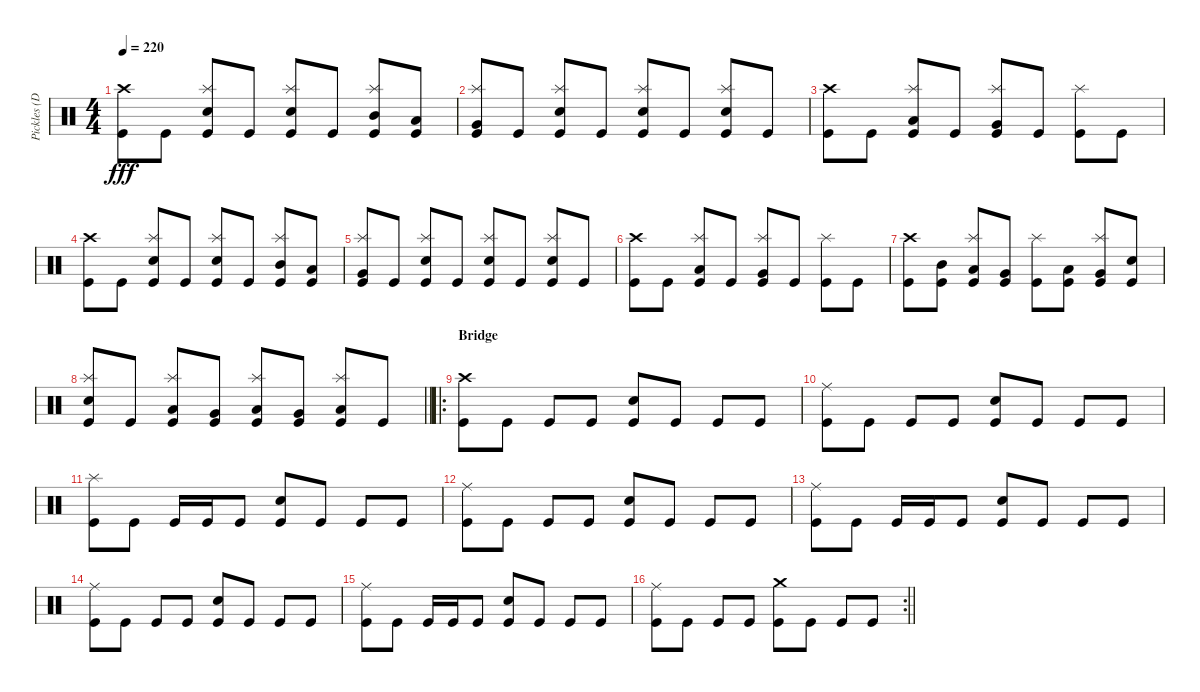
\track ("Pickles (Drums)" "Pickles (D") {instrument percussion}
\staff {score}
\articulation defaults
\ts (4 4)
\tempo 220
\clef neutral
\ks c
("Crash high (hit)" "Kick (hit)").8{dy fff} "Kick (hit)".8 ("Splash (hit)" "Electric Snare (hit)" "Kick (hit)").8 "Kick (hit)".8 ("Splash (hit)" "Electric Snare (hit)" "Kick (hit)").8 "Kick (hit)".8 ("Splash (hit)" "Mid Tom (hit)" "Kick (hit)").8 ("Low Tom (hit)" "Kick (hit)").8 |
("Splash (hit)" "Very Low Tom (hit)" "Kick (hit)").8 "Kick (hit)".8 ("Splash (hit)" "Electric Snare (hit)" "Kick (hit)").8 "Kick (hit)".8 ("Splash (hit)" "Electric Snare (hit)" "Kick (hit)").8 "Kick (hit)".8 ("Splash (hit)" "Electric Snare (hit)" "Kick (hit)").8 "Kick (hit)".8 |
("Crash high (hit)" "Kick (hit)").8 "Kick (hit)".8 ("Splash (hit)" "Low Tom (hit)" "Kick (hit)").8 "Kick (hit)".8 ("Splash (hit)" "Very Low Tom (hit)" "Kick (hit)").8 "Kick (hit)".8 ("Splash (hit)" "Kick (hit)").8 "Kick (hit)".8 |
("Crash high (hit)" "Kick (hit)").8 "Kick (hit)".8 ("Splash (hit)" "Electric Snare (hit)" "Kick (hit)").8 "Kick (hit)".8 ("Splash (hit)" "Electric Snare (hit)" "Kick (hit)").8 "Kick (hit)".8 ("Splash (hit)" "Mid Tom (hit)" "Kick (hit)").8 ("Low Tom (hit)" "Kick (hit)").8 |
("Splash (hit)" "Very Low Tom (hit)" "Kick (hit)").8 "Kick (hit)".8 ("Splash (hit)" "Electric Snare (hit)" "Kick (hit)").8 "Kick (hit)".8 ("Splash (hit)" "Electric Snare (hit)" "Kick (hit)").8 "Kick (hit)".8 ("Splash (hit)" "Electric Snare (hit)" "Kick (hit)").8 "Kick (hit)".8 |
("Crash high (hit)" "Kick (hit)").8 "Kick (hit)".8 ("Splash (hit)" "Low Tom (hit)" "Kick (hit)").8 "Kick (hit)".8 ("Splash (hit)" "Very Low Tom (hit)" "Kick (hit)").8 "Kick (hit)".8 ("Splash (hit)" "Kick (hit)").8 "Kick (hit)".8 |
("Crash high (hit)" "Kick (hit)").8 ("Mid Tom (hit)" "Kick (hit)").8 ("Splash (hit)" "Low Tom (hit)" "Kick (hit)").8 ("Very Low Tom (hit)" "Kick (hit)").8 ("Splash (hit)" "Kick (hit)").8 ("Low Tom (hit)" "Kick (hit)").8 ("Splash (hit)" "Very Low Tom (hit)" "Kick (hit)").8 ("Electric Snare (hit)" "Kick (hit)").8 |
\barLineRight lightlight
("Splash (hit)" "Electric Snare (hit)" "Kick (hit)").8 "Kick (hit)".8 ("Splash (hit)" "Low Tom (hit)" "Kick (hit)").8 ("Very Low Tom (hit)" "Kick (hit)").8 ("Splash (hit)" "Low Floor Tom (hit)" "Kick (hit)").8 ("Very Low Tom (hit)" "Kick (hit)").8 ("Splash (hit)" "Low Floor Tom (hit)" "Kick (hit)").8 "Kick (hit)".8 |
\ro
\section ("" "Bridge")
("Crash high (hit)" "Kick (hit)").8 "Kick (hit)".8 "Kick (hit)".8 "Kick (hit)".8 ("Electric Snare (hit)" "Kick (hit)").8 "Kick (hit)".8 "Kick (hit)".8 "Kick (hit)".8 |
("Ride (middle)" "Kick (hit)").8 "Kick (hit)".8 "Kick (hit)".8 "Kick (hit)".8 ("Electric Snare (hit)" "Kick (hit)").8 "Kick (hit)".8 "Kick (hit)".8 "Kick (hit)".8 |
("Splash (hit)" "Kick (hit)").8 "Kick (hit)".8 "Kick (hit)".16 "Kick (hit)".16 "Kick (hit)".8 ("Electric Snare (hit)" "Kick (hit)").8 "Kick (hit)".8 "Kick (hit)".8 "Kick (hit)".8 |
("Ride (middle)" "Kick (hit)").8 "Kick (hit)".8 "Kick (hit)".8 "Kick (hit)".8 ("Electric Snare (hit)" "Kick (hit)").8 "Kick (hit)".8 "Kick (hit)".8 "Kick (hit)".8 |
("Ride (middle)" "Kick (hit)").8 "Kick (hit)".8 "Kick (hit)".16 "Kick (hit)".16 "Kick (hit)".8 ("Electric Snare (hit)" "Kick (hit)").8 "Kick (hit)".8 "Kick (hit)".8 "Kick (hit)".8 |
("Ride (middle)" "Kick (hit)").8 "Kick (hit)".8 "Kick (hit)".8 "Kick (hit)".8 ("Electric Snare (hit)" "Kick (hit)").8 "Kick (hit)".8 "Kick (hit)".8 "Kick (hit)".8 |
("Ride (middle)" "Kick (hit)").8 "Kick (hit)".8 "Kick (hit)".16 "Kick (hit)".16 "Kick (hit)".8 ("Electric Snare (hit)" "Kick (hit)").8 "Kick (hit)".8 "Kick (hit)".8 "Kick (hit)".8 |
\rc 2
\barLineRight lightlight
("Ride (middle)" "Kick (hit)").8 "Kick (hit)".8 "Kick (hit)".8 "Kick (hit)".8 ("Crash medium (hit)" "Kick (hit)").8 "Kick (hit)".8 "Kick (hit)".8 "Kick (hit)".8
